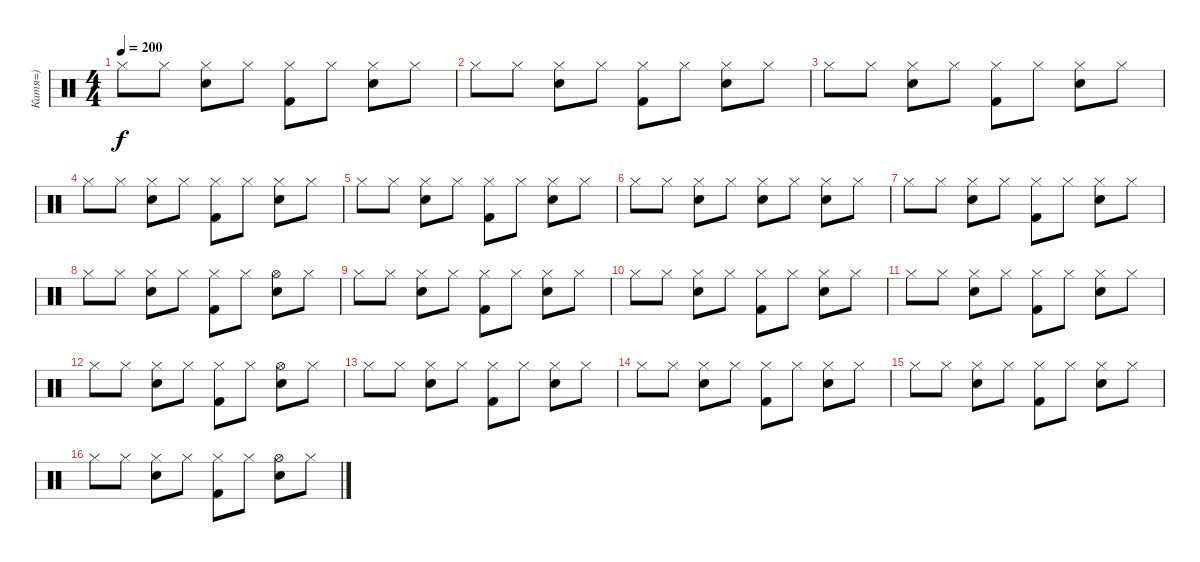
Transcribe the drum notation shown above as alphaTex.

\track ("Катя=)" "Катя=)") {instrument percussion}
\staff {score}
\articulation defaults
\ts (4 4)
\tempo 200
\clef neutral
\ks c "Hi-Hat (closed)".8{dy f} "Hi-Hat (closed)".8
("Hi-Hat (closed)" "Electric Snare (hit)").8 "Hi-Hat (closed)".8 ("Hi-Hat (closed)" "Kick (hit) 2").8 "Hi-Hat (closed)".8 ("Hi-Hat (closed)" "Electric Snare (hit)").8 "Hi-Hat (closed)".8 |
"Hi-Hat (closed)".8 "Hi-Hat (closed)".8 ("Hi-Hat (closed)" "Electric Snare (hit)").8 "Hi-Hat (closed)".8 ("Hi-Hat (closed)" "Kick (hit) 2").8 "Hi-Hat (closed)".8 ("Hi-Hat (closed)" "Electric Snare (hit)").8 "Hi-Hat (closed)".8 |
"Hi-Hat (closed)".8 "Hi-Hat (closed)".8 ("Hi-Hat (closed)" "Electric Snare (hit)").8 "Hi-Hat (closed)".8 ("Hi-Hat (closed)" "Kick (hit) 2").8 "Hi-Hat (closed)".8 ("Hi-Hat (closed)" "Electric Snare (hit)").8 "Hi-Hat (closed)".8 |
"Hi-Hat (closed)".8 "Hi-Hat (closed)".8 ("Hi-Hat (closed)" "Electric Snare (hit)").8 "Hi-Hat (closed)".8 ("Hi-Hat (closed)" "Kick (hit) 2").8 "Hi-Hat (closed)".8 ("Hi-Hat (closed)" "Electric Snare (hit)").8 "Hi-Hat (closed)".8 |
"Hi-Hat (closed)".8 "Hi-Hat (closed)".8 ("Hi-Hat (closed)" "Electric Snare (hit)").8 "Hi-Hat (closed)".8 ("Hi-Hat (closed)" "Kick (hit) 2").8 "Hi-Hat (closed)".8 ("Hi-Hat (closed)" "Electric Snare (hit)").8 "Hi-Hat (closed)".8 |
"Hi-Hat (closed)".8 "Hi-Hat (closed)".8 ("Hi-Hat (closed)" "Electric Snare (hit)").8 "Hi-Hat (closed)".8 ("Hi-Hat (closed)" "Electric Snare (hit)").8 "Hi-Hat (closed)".8 ("Hi-Hat (closed)" "Electric Snare (hit)").8 "Hi-Hat (closed)".8 |
"Hi-Hat (closed)".8 "Hi-Hat (closed)".8 ("Hi-Hat (closed)" "Electric Snare (hit)").8 "Hi-Hat (closed)".8 ("Hi-Hat (closed)" "Kick (hit) 2").8 "Hi-Hat (closed)".8 ("Hi-Hat (closed)" "Electric Snare (hit)").8 "Hi-Hat (closed)".8 |
"Hi-Hat (closed)".8 "Hi-Hat (closed)".8 ("Hi-Hat (closed)" "Electric Snare (hit)").8 "Hi-Hat (closed)".8 ("Hi-Hat (closed)" "Kick (hit) 2").8 "Hi-Hat (closed)".8 ("Hi-Hat (open)" "Electric Snare (hit)").8 "Hi-Hat (closed)".8 |
"Hi-Hat (closed)".8 "Hi-Hat (closed)".8 ("Hi-Hat (closed)" "Electric Snare (hit)").8 "Hi-Hat (closed)".8 ("Hi-Hat (closed)" "Kick (hit) 2").8 "Hi-Hat (closed)".8 ("Hi-Hat (closed)" "Electric Snare (hit)").8 "Hi-Hat (closed)".8 |
"Hi-Hat (closed)".8 "Hi-Hat (closed)".8 ("Hi-Hat (closed)" "Electric Snare (hit)").8 "Hi-Hat (closed)".8 ("Hi-Hat (closed)" "Kick (hit) 2").8 "Hi-Hat (closed)".8 ("Hi-Hat (closed)" "Electric Snare (hit)").8 "Hi-Hat (closed)".8 |
"Hi-Hat (closed)".8 "Hi-Hat (closed)".8 ("Hi-Hat (closed)" "Electric Snare (hit)").8 "Hi-Hat (closed)".8 ("Hi-Hat (closed)" "Kick (hit) 2").8 "Hi-Hat (closed)".8 ("Hi-Hat (closed)" "Electric Snare (hit)").8 "Hi-Hat (closed)".8 |
"Hi-Hat (closed)".8 "Hi-Hat (closed)".8 ("Hi-Hat (closed)" "Electric Snare (hit)").8 "Hi-Hat (closed)".8 ("Hi-Hat (closed)" "Kick (hit) 2").8 "Hi-Hat (closed)".8 ("Hi-Hat (open)" "Electric Snare (hit)").8 "Hi-Hat (closed)".8 |
"Hi-Hat (closed)".8 "Hi-Hat (closed)".8 ("Hi-Hat (closed)" "Electric Snare (hit)").8 "Hi-Hat (closed)".8 ("Hi-Hat (closed)" "Kick (hit) 2").8 "Hi-Hat (closed)".8 ("Hi-Hat (closed)" "Electric Snare (hit)").8 "Hi-Hat (closed)".8 |
"Hi-Hat (closed)".8 "Hi-Hat (closed)".8 ("Hi-Hat (closed)" "Electric Snare (hit)").8 "Hi-Hat (closed)".8 ("Hi-Hat (closed)" "Kick (hit) 2").8 "Hi-Hat (closed)".8 ("Hi-Hat (closed)" "Electric Snare (hit)").8 "Hi-Hat (closed)".8 |
"Hi-Hat (closed)".8 "Hi-Hat (closed)".8 ("Hi-Hat (closed)" "Electric Snare (hit)").8 "Hi-Hat (closed)".8 ("Hi-Hat (closed)" "Kick (hit) 2").8 "Hi-Hat (closed)".8 ("Hi-Hat (closed)" "Electric Snare (hit)").8 "Hi-Hat (closed)".8 |
"Hi-Hat (closed)".8 "Hi-Hat (closed)".8 ("Hi-Hat (closed)" "Electric Snare (hit)").8 "Hi-Hat (closed)".8 ("Hi-Hat (closed)" "Kick (hit) 2").8 "Hi-Hat (closed)".8 ("Hi-Hat (open)" "Electric Snare (hit)").8 "Hi-Hat (closed)".8
